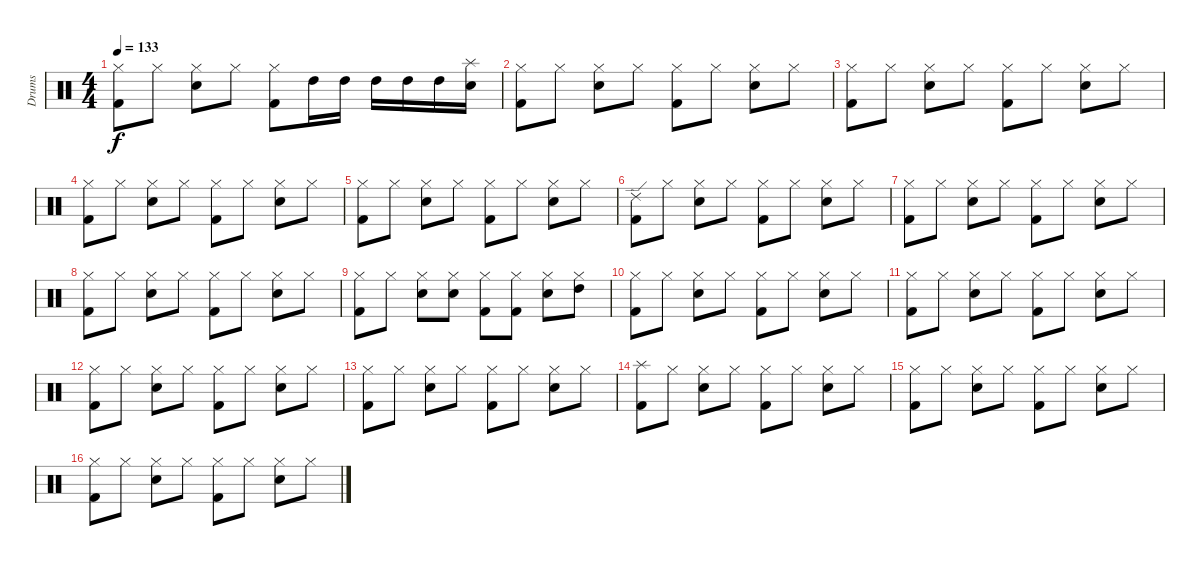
\track ("Drums" "Drums") {instrument percussion}
\staff {score}
\articulation defaults
\ts (4 4)
\tempo 133
\clef neutral
\ks c
("Kick (hit) 2" "Hi-Hat (closed)").8{dy f} "Hi-Hat (closed)".8 ("Snare (hit) 2" "Hi-Hat (closed)").8 "Hi-Hat (closed)".8 ("Kick (hit) 2" "Hi-Hat (closed)").8 "High Tom (hit)".16 "High Tom (hit)".16 "High Tom (hit)".16 "High Tom (hit)".16 "High Tom (hit)".16 ("Snare (hit) 2" "Splash (hit)").16 |
("Kick (hit) 2" "Hi-Hat (closed)").8 "Hi-Hat (closed)".8 ("Snare (hit) 2" "Hi-Hat (closed)").8 "Hi-Hat (closed)".8 ("Kick (hit) 2" "Hi-Hat (closed)").8 "Hi-Hat (closed)".8 ("Snare (hit) 2" "Hi-Hat (closed)").8 "Hi-Hat (closed)".8 |
("Kick (hit) 2" "Hi-Hat (closed)").8 "Hi-Hat (closed)".8 ("Snare (hit) 2" "Hi-Hat (closed)").8 "Hi-Hat (closed)".8 ("Kick (hit) 2" "Hi-Hat (closed)").8 "Hi-Hat (closed)".8 ("Snare (hit) 2" "Hi-Hat (closed)").8 "Hi-Hat (closed)".8 |
("Kick (hit) 2" "Hi-Hat (closed)").8 "Hi-Hat (closed)".8 ("Snare (hit) 2" "Hi-Hat (closed)").8 "Hi-Hat (closed)".8 ("Kick (hit) 2" "Hi-Hat (closed)").8 "Hi-Hat (closed)".8 ("Snare (hit) 2" "Hi-Hat (closed)").8 "Hi-Hat (closed)".8 |
("Kick (hit) 2" "Hi-Hat (closed)").8 "Hi-Hat (closed)".8 ("Snare (hit) 2" "Hi-Hat (closed)").8 "Hi-Hat (closed)".8 ("Kick (hit) 2" "Hi-Hat (closed)").8 "Hi-Hat (closed)".8 ("Snare (hit) 2" "Hi-Hat (closed)").8 "Hi-Hat (closed)".8 |
("Kick (hit) 2" "Ride (edge) 2").8 "Hi-Hat (closed)".8 ("Snare (hit) 2" "Hi-Hat (closed)").8 "Hi-Hat (closed)".8 ("Kick (hit) 2" "Hi-Hat (closed)").8 "Hi-Hat (closed)".8 ("Snare (hit) 2" "Hi-Hat (closed)").8 "Hi-Hat (closed)".8 |
("Kick (hit) 2" "Hi-Hat (closed)").8 "Hi-Hat (closed)".8 ("Snare (hit) 2" "Hi-Hat (closed)").8 "Hi-Hat (closed)".8 ("Kick (hit) 2" "Hi-Hat (closed)").8 "Hi-Hat (closed)".8 ("Snare (hit) 2" "Hi-Hat (closed)").8 "Hi-Hat (closed)".8 |
("Kick (hit) 2" "Hi-Hat (closed)").8 "Hi-Hat (closed)".8 ("Snare (hit) 2" "Hi-Hat (closed)").8 "Hi-Hat (closed)".8 ("Kick (hit) 2" "Hi-Hat (closed)").8 "Hi-Hat (closed)".8 ("Snare (hit) 2" "Hi-Hat (closed)").8 "Hi-Hat (closed)".8 |
("Kick (hit) 2" "Hi-Hat (closed)").8 "Hi-Hat (closed)".8 ("Snare (hit) 2" "Hi-Hat (closed)").8 ("Snare (hit) 2" "Hi-Hat (closed)").8 ("Kick (hit) 2" "Hi-Hat (closed)").8 ("Kick (hit) 2" "Hi-Hat (closed)").8 ("Snare (hit) 2" "Hi-Hat (closed)").8 ("High Tom (hit)" "Hi-Hat (closed)").8 |
("Kick (hit) 2" "Hi-Hat (closed)").8 "Hi-Hat (closed)".8 ("Snare (hit) 2" "Hi-Hat (closed)").8 "Hi-Hat (closed)".8 ("Kick (hit) 2" "Hi-Hat (closed)").8 "Hi-Hat (closed)".8 ("Snare (hit) 2" "Hi-Hat (closed)").8 "Hi-Hat (closed)".8 |
("Kick (hit) 2" "Hi-Hat (closed)").8 "Hi-Hat (closed)".8 ("Snare (hit) 2" "Hi-Hat (closed)").8 "Hi-Hat (closed)".8 ("Kick (hit) 2" "Hi-Hat (closed)").8 "Hi-Hat (closed)".8 ("Snare (hit) 2" "Hi-Hat (closed)").8 "Hi-Hat (closed)".8 |
("Kick (hit) 2" "Hi-Hat (closed)").8 "Hi-Hat (closed)".8 ("Snare (hit) 2" "Hi-Hat (closed)").8 "Hi-Hat (closed)".8 ("Kick (hit) 2" "Hi-Hat (closed)").8 "Hi-Hat (closed)".8 ("Snare (hit) 2" "Hi-Hat (closed)").8 "Hi-Hat (closed)".8 |
("Kick (hit) 2" "Hi-Hat (closed)").8 "Hi-Hat (closed)".8 ("Snare (hit) 2" "Hi-Hat (closed)").8 "Hi-Hat (closed)".8 ("Kick (hit) 2" "Hi-Hat (closed)").8 "Hi-Hat (closed)".8 ("Snare (hit) 2" "Hi-Hat (closed)").8 "Hi-Hat (closed)".8 |
("Kick (hit) 2" "Splash (hit)").8 "Hi-Hat (closed)".8 ("Snare (hit) 2" "Hi-Hat (closed)").8 "Hi-Hat (closed)".8 ("Kick (hit) 2" "Hi-Hat (closed)").8 "Hi-Hat (closed)".8 ("Snare (hit) 2" "Hi-Hat (closed)").8 "Hi-Hat (closed)".8 |
("Kick (hit) 2" "Hi-Hat (closed)").8 "Hi-Hat (closed)".8 ("Snare (hit) 2" "Hi-Hat (closed)").8 "Hi-Hat (closed)".8 ("Kick (hit) 2" "Hi-Hat (closed)").8 "Hi-Hat (closed)".8 ("Snare (hit) 2" "Hi-Hat (closed)").8 "Hi-Hat (closed)".8 |
("Kick (hit) 2" "Hi-Hat (closed)").8 "Hi-Hat (closed)".8 ("Snare (hit) 2" "Hi-Hat (closed)").8 "Hi-Hat (closed)".8 ("Kick (hit) 2" "Hi-Hat (closed)").8 "Hi-Hat (closed)".8 ("Snare (hit) 2" "Hi-Hat (closed)").8 "Hi-Hat (closed)".8
